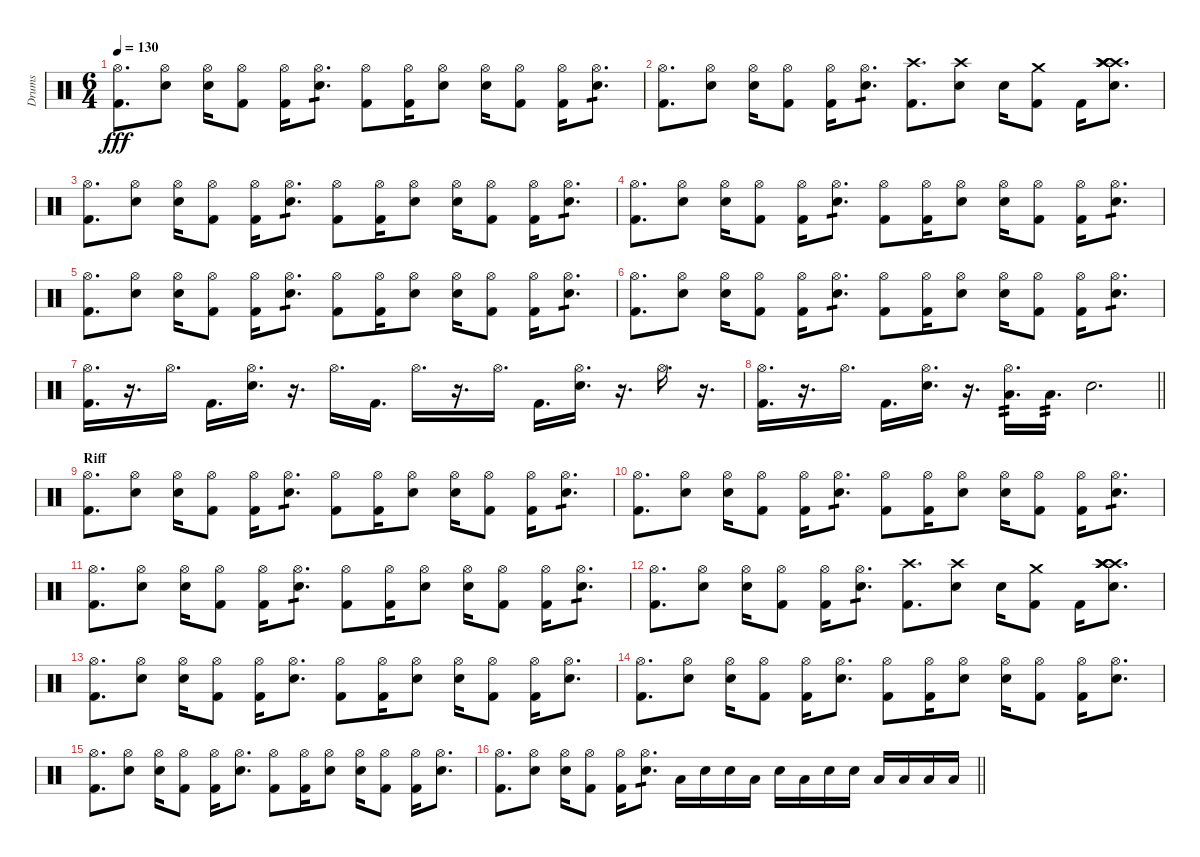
\track ("Drums" "Drums") {instrument percussion}
\staff {score}
\articulation defaults
\ts (6 4)
\tempo 130
\clef neutral
\ks c
("Hi-Hat (open)" "Kick (hit) 2").8{d dy fff} ("Hi-Hat (open)" "Snare (hit) 2").8 ("Hi-Hat (open)" "Snare (hit) 2").16 ("Hi-Hat (open)" "Kick (hit) 2").8 ("Hi-Hat (open)" "Kick (hit) 2").16 ("Hi-Hat (open)" "Snare (hit) 2").8{d tp 1} ("Hi-Hat (open)" "Kick (hit) 2").8 ("Hi-Hat (open)" "Kick (hit) 2").16 ("Hi-Hat (open)" "Snare (hit) 2").8 ("Hi-Hat (open)" "Snare (hit) 2").16 ("Hi-Hat (open)" "Kick (hit) 2").8 ("Hi-Hat (open)" "Kick (hit) 2").16 ("Hi-Hat (open)" "Snare (hit) 2").8{d tp 1} |
("Hi-Hat (open)" "Kick (hit) 2").8{d} ("Hi-Hat (open)" "Snare (hit) 2").8 ("Hi-Hat (open)" "Snare (hit) 2").16 ("Hi-Hat (open)" "Kick (hit) 2").8 ("Hi-Hat (open)" "Kick (hit) 2").16 ("Hi-Hat (open)" "Snare (hit) 2").8{d tp 1} ("Crash high (hit)" "Kick (hit) 2").8{d} ("Crash high (hit)" "Snare (hit) 2").8 "Snare (hit) 2".16 ("Crash medium (hit)" "Kick (hit) 2").8 "Kick (hit) 2".16 ("Crash high (hit)" "Crash high (hit)" "Crash high (hit)" "Crash high (hit)" "Snare (hit) 2").8{d} |
("Hi-Hat (open)" "Kick (hit) 2").8{d} ("Hi-Hat (open)" "Snare (hit) 2").8 ("Hi-Hat (open)" "Snare (hit) 2").16 ("Hi-Hat (open)" "Kick (hit) 2").8 ("Hi-Hat (open)" "Kick (hit) 2").16 ("Hi-Hat (open)" "Snare (hit) 2").8{d tp 1} ("Hi-Hat (open)" "Kick (hit) 2").8 ("Hi-Hat (open)" "Kick (hit) 2").16 ("Hi-Hat (open)" "Snare (hit) 2").8 ("Hi-Hat (open)" "Snare (hit) 2").16 ("Hi-Hat (open)" "Kick (hit) 2").8 ("Hi-Hat (open)" "Kick (hit) 2").16 ("Hi-Hat (open)" "Snare (hit) 2").8{d tp 1} |
("Hi-Hat (open)" "Kick (hit) 2").8{d} ("Hi-Hat (open)" "Snare (hit) 2").8 ("Hi-Hat (open)" "Snare (hit) 2").16 ("Hi-Hat (open)" "Kick (hit) 2").8 ("Hi-Hat (open)" "Kick (hit) 2").16 ("Hi-Hat (open)" "Snare (hit) 2").8{d tp 1} ("Hi-Hat (open)" "Kick (hit) 2").8 ("Hi-Hat (open)" "Kick (hit) 2").16 ("Hi-Hat (open)" "Snare (hit) 2").8 ("Hi-Hat (open)" "Snare (hit) 2").16 ("Hi-Hat (open)" "Kick (hit) 2").8 ("Hi-Hat (open)" "Kick (hit) 2").16 ("Hi-Hat (open)" "Snare (hit) 2").8{d tp 1} |
("Hi-Hat (open)" "Kick (hit) 2").8{d} ("Hi-Hat (open)" "Snare (hit) 2").8 ("Hi-Hat (open)" "Snare (hit) 2").16 ("Hi-Hat (open)" "Kick (hit) 2").8 ("Hi-Hat (open)" "Kick (hit) 2").16 ("Hi-Hat (open)" "Snare (hit) 2").8{d tp 1} ("Hi-Hat (open)" "Kick (hit) 2").8 ("Hi-Hat (open)" "Kick (hit) 2").16 ("Hi-Hat (open)" "Snare (hit) 2").8 ("Hi-Hat (open)" "Snare (hit) 2").16 ("Hi-Hat (open)" "Kick (hit) 2").8 ("Hi-Hat (open)" "Kick (hit) 2").16 ("Hi-Hat (open)" "Snare (hit) 2").8{d tp 1} |
("Hi-Hat (open)" "Kick (hit) 2").8{d} ("Hi-Hat (open)" "Snare (hit) 2").8 ("Hi-Hat (open)" "Snare (hit) 2").16 ("Hi-Hat (open)" "Kick (hit) 2").8 ("Hi-Hat (open)" "Kick (hit) 2").16 ("Hi-Hat (open)" "Snare (hit) 2").8{d tp 1} ("Hi-Hat (open)" "Kick (hit) 2").8 ("Hi-Hat (open)" "Kick (hit) 2").16 ("Hi-Hat (open)" "Snare (hit) 2").8 ("Hi-Hat (open)" "Snare (hit) 2").16 ("Hi-Hat (open)" "Kick (hit) 2").8 ("Hi-Hat (open)" "Kick (hit) 2").16 ("Hi-Hat (open)" "Snare (hit) 2").8{d tp 1} |
("Hi-Hat (open)" "Kick (hit) 2").16{d} r.16{d} "Hi-Hat (open)".16{d} "Kick (hit) 2".16{d} ("Hi-Hat (open)" "Snare (hit) 2").16{d} r.16{d} "Hi-Hat (open)".16{d} "Kick (hit) 2".16{d} "Hi-Hat (open)".16{d} r.16{d} "Hi-Hat (open)".16{d} "Kick (hit) 2".16{d} ("Hi-Hat (open)" "Snare (hit) 2").16{d} r.16{d} "Hi-Hat (open)".16{d} r.16{d} |
\barLineRight lightlight
("Hi-Hat (open)" "Kick (hit) 2").16{d} r.16{d} "Hi-Hat (open)".16{d} "Kick (hit) 2".16{d} ("Hi-Hat (open)" "Snare (hit) 2").16{d} r.16{d} ("Hi-Hat (open)" "Low Floor Tom (hit)").16{d tp 2} "Low Tom (hit)".16{d tp 2} "Snare (hit) 2".2{d} |
\section ("" "Riff")
("Hi-Hat (open)" "Kick (hit) 2").8{d} ("Hi-Hat (open)" "Snare (hit) 2").8 ("Hi-Hat (open)" "Snare (hit) 2").16 ("Hi-Hat (open)" "Kick (hit) 2").8 ("Hi-Hat (open)" "Kick (hit) 2").16 ("Hi-Hat (open)" "Snare (hit) 2").8{d tp 1} ("Hi-Hat (open)" "Kick (hit) 2").8 ("Hi-Hat (open)" "Kick (hit) 2").16 ("Hi-Hat (open)" "Snare (hit) 2").8 ("Hi-Hat (open)" "Snare (hit) 2").16 ("Hi-Hat (open)" "Kick (hit) 2").8 ("Hi-Hat (open)" "Kick (hit) 2").16 ("Hi-Hat (open)" "Snare (hit) 2").8{d tp 1} |
("Hi-Hat (open)" "Kick (hit) 2").8{d} ("Hi-Hat (open)" "Snare (hit) 2").8 ("Hi-Hat (open)" "Snare (hit) 2").16 ("Hi-Hat (open)" "Kick (hit) 2").8 ("Hi-Hat (open)" "Kick (hit) 2").16 ("Hi-Hat (open)" "Snare (hit) 2").8{d tp 1} ("Hi-Hat (open)" "Kick (hit) 2").8 ("Hi-Hat (open)" "Kick (hit) 2").16 ("Hi-Hat (open)" "Snare (hit) 2").8 ("Hi-Hat (open)" "Snare (hit) 2").16 ("Hi-Hat (open)" "Kick (hit) 2").8 ("Hi-Hat (open)" "Kick (hit) 2").16 ("Hi-Hat (open)" "Snare (hit) 2").8{d tp 1} |
("Hi-Hat (open)" "Kick (hit) 2").8{d} ("Hi-Hat (open)" "Snare (hit) 2").8 ("Hi-Hat (open)" "Snare (hit) 2").16 ("Hi-Hat (open)" "Kick (hit) 2").8 ("Hi-Hat (open)" "Kick (hit) 2").16 ("Hi-Hat (open)" "Snare (hit) 2").8{d tp 1} ("Hi-Hat (open)" "Kick (hit) 2").8 ("Hi-Hat (open)" "Kick (hit) 2").16 ("Hi-Hat (open)" "Snare (hit) 2").8 ("Hi-Hat (open)" "Snare (hit) 2").16 ("Hi-Hat (open)" "Kick (hit) 2").8 ("Hi-Hat (open)" "Kick (hit) 2").16 ("Hi-Hat (open)" "Snare (hit) 2").8{d tp 1} |
("Hi-Hat (open)" "Kick (hit) 2").8{d} ("Hi-Hat (open)" "Snare (hit) 2").8 ("Hi-Hat (open)" "Snare (hit) 2").16 ("Hi-Hat (open)" "Kick (hit) 2").8 ("Hi-Hat (open)" "Kick (hit) 2").16 ("Hi-Hat (open)" "Snare (hit) 2").8{d tp 1} ("Crash high (hit)" "Kick (hit) 2").8{d} ("Crash high (hit)" "Snare (hit) 2").8 "Snare (hit) 2".16 ("Crash medium (hit)" "Kick (hit) 2").8 "Kick (hit) 2".16 ("Crash high (hit)" "Crash high (hit)" "Crash high (hit)" "Crash high (hit)" "Snare (hit) 2").8{d} |
("Hi-Hat (open)" "Kick (hit) 2").8{d} ("Hi-Hat (open)" "Snare (hit) 2").8 ("Hi-Hat (open)" "Snare (hit) 2").16 ("Hi-Hat (open)" "Kick (hit) 2").8 ("Hi-Hat (open)" "Kick (hit) 2").16 ("Hi-Hat (open)" "Snare (hit) 2").8{d} ("Hi-Hat (open)" "Kick (hit) 2").8 ("Hi-Hat (open)" "Kick (hit) 2").16 ("Hi-Hat (open)" "Snare (hit) 2").8 ("Hi-Hat (open)" "Snare (hit) 2").16 ("Hi-Hat (open)" "Kick (hit) 2").8 ("Hi-Hat (open)" "Kick (hit) 2").16 ("Hi-Hat (open)" "Snare (hit) 2").8{d} |
("Hi-Hat (open)" "Kick (hit) 2").8{d} ("Hi-Hat (open)" "Snare (hit) 2").8 ("Hi-Hat (open)" "Snare (hit) 2").16 ("Hi-Hat (open)" "Kick (hit) 2").8 ("Hi-Hat (open)" "Kick (hit) 2").16 ("Hi-Hat (open)" "Snare (hit) 2").8{d} ("Hi-Hat (open)" "Kick (hit) 2").8 ("Hi-Hat (open)" "Kick (hit) 2").16 ("Hi-Hat (open)" "Snare (hit) 2").8 ("Hi-Hat (open)" "Snare (hit) 2").16 ("Hi-Hat (open)" "Kick (hit) 2").8 ("Hi-Hat (open)" "Kick (hit) 2").16 ("Hi-Hat (open)" "Snare (hit) 2").8{d} |
("Hi-Hat (open)" "Kick (hit) 2").8{d} ("Hi-Hat (open)" "Snare (hit) 2").8 ("Hi-Hat (open)" "Snare (hit) 2").16 ("Hi-Hat (open)" "Kick (hit) 2").8 ("Hi-Hat (open)" "Kick (hit) 2").16 ("Hi-Hat (open)" "Snare (hit) 2").8{d} ("Hi-Hat (open)" "Kick (hit) 2").8 ("Hi-Hat (open)" "Kick (hit) 2").16 ("Hi-Hat (open)" "Snare (hit) 2").8 ("Hi-Hat (open)" "Snare (hit) 2").16 ("Hi-Hat (open)" "Kick (hit) 2").8 ("Hi-Hat (open)" "Kick (hit) 2").16 ("Hi-Hat (open)" "Snare (hit) 2").8{d} |
\barLineRight lightlight
("Hi-Hat (open)" "Kick (hit) 2").8{d} ("Hi-Hat (open)" "Snare (hit) 2").8 ("Hi-Hat (open)" "Snare (hit) 2").16 ("Hi-Hat (open)" "Kick (hit) 2").8 ("Hi-Hat (open)" "Kick (hit) 2").16 ("Hi-Hat (open)" "Snare (hit) 2").8{d tp 1} "Low Tom (hit)".16 "Snare (hit) 2".16 "Snare (hit) 2".16 "Low Tom (hit)".16 "Snare (hit) 2".16 "Low Tom (hit)".16 "Snare (hit) 2".16 "Snare (hit) 2".16 "Low Tom (hit)".16 "Low Tom (hit)".16 "Low Tom (hit)".16 "Low Floor Tom (hit)".16
